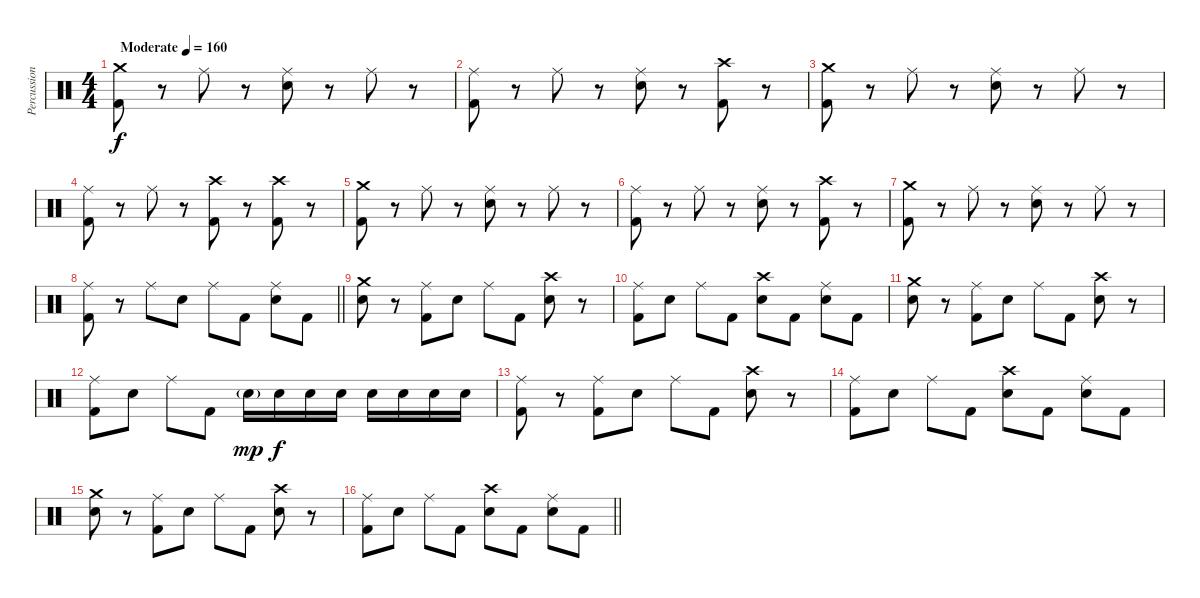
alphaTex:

\track ("Percussion" "Percussion") {instrument percussion}
\staff {score}
\articulation defaults
\ts (4 4)
\tempo (160 "Moderate")
\clef neutral
\ks c
("Crash medium (hit)" "Kick (hit) 2").8{dy f} r.8 "Ride (middle)".8 r.8 ("Ride (middle)" "Electric Snare (hit)").8 r.8 "Ride (middle)".8 r.8 |
("Ride (middle)" "Kick (hit) 2").8 r.8 "Ride (middle)".8 r.8 ("Ride (middle)" "Electric Snare (hit)").8 r.8 ("Crash high (hit)" "Kick (hit) 2").8 r.8 |
("Crash medium (hit)" "Kick (hit) 2").8 r.8 "Ride (middle)".8 r.8 ("Ride (middle)" "Electric Snare (hit)").8 r.8 "Ride (middle)".8 r.8 |
("Ride (middle)" "Kick (hit) 2").8 r.8 "Ride (middle)".8 r.8 ("Crash high (hit)" "Kick (hit) 2").8 r.8 ("Crash high (hit)" "Kick (hit) 2").8 r.8 |
("Crash medium (hit)" "Kick (hit) 2").8 r.8 "Ride (middle)".8 r.8 ("Ride (middle)" "Electric Snare (hit)").8 r.8 "Ride (middle)".8 r.8 |
("Ride (middle)" "Kick (hit) 2").8 r.8 "Ride (middle)".8 r.8 ("Ride (middle)" "Electric Snare (hit)").8 r.8 ("Crash high (hit)" "Kick (hit) 2").8 r.8 |
("Crash medium (hit)" "Kick (hit) 2").8 r.8 "Ride (middle)".8 r.8 ("Ride (middle)" "Electric Snare (hit)").8 r.8 "Ride (middle)".8 r.8 |
\barLineRight lightlight
("Ride (middle)" "Kick (hit) 2").8 r.8 "Ride (middle)".8 "Electric Snare (hit)".8 "Ride (middle)".8 "Kick (hit) 2".8 ("Ride (middle)" "Electric Snare (hit)").8 "Kick (hit) 2".8 |
\section ("" "")
("Crash medium (hit)" "Electric Snare (hit)").8 r.8 ("Ride (middle)" "Kick (hit) 2").8 "Electric Snare (hit)".8 "Ride (middle)".8 "Kick (hit) 2".8 ("Crash high (hit)" "Electric Snare (hit)").8 r.8 |
("Ride (middle)" "Kick (hit) 2").8 "Electric Snare (hit)".8 "Ride (middle)".8 "Kick (hit) 2".8 ("Crash high (hit)" "Electric Snare (hit)").8 "Kick (hit) 2".8 ("Ride (middle)" "Electric Snare (hit)").8 "Kick (hit) 2".8 |
("Crash medium (hit)" "Electric Snare (hit)").8 r.8 ("Ride (middle)" "Kick (hit) 2").8 "Electric Snare (hit)".8 "Ride (middle)".8 "Kick (hit) 2".8 ("Crash high (hit)" "Electric Snare (hit)").8 r.8 |
("Ride (middle)" "Kick (hit) 2").8 "Electric Snare (hit)".8 "Ride (middle)".8 "Kick (hit) 2".8 "Electric Snare (hit)"{g}.16{dy mp} "Electric Snare (hit)".16{dy f} "Electric Snare (hit)".16 "Electric Snare (hit)".16 "Electric Snare (hit)".16 "Electric Snare (hit)".16 "Electric Snare (hit)".16 "Electric Snare (hit)".16 |
("Ride (middle)" "Kick (hit) 2").8 r.8 ("Ride (middle)" "Kick (hit) 2").8 "Electric Snare (hit)".8 "Ride (middle)".8 "Kick (hit) 2".8 ("Crash high (hit)" "Electric Snare (hit)").8 r.8 |
("Ride (middle)" "Kick (hit) 2").8 "Electric Snare (hit)".8 "Ride (middle)".8 "Kick (hit) 2".8 ("Crash high (hit)" "Electric Snare (hit)").8 "Kick (hit) 2".8 ("Ride (middle)" "Electric Snare (hit)").8 "Kick (hit) 2".8 |
("Crash medium (hit)" "Electric Snare (hit)").8 r.8 ("Ride (middle)" "Kick (hit) 2").8 "Electric Snare (hit)".8 "Ride (middle)".8 "Kick (hit) 2".8 ("Crash high (hit)" "Electric Snare (hit)").8 r.8 |
\barLineRight lightlight
("Ride (middle)" "Kick (hit) 2").8 "Electric Snare (hit)".8 "Ride (middle)".8 "Kick (hit) 2".8 ("Crash high (hit)" "Electric Snare (hit)").8 "Kick (hit) 2".8 ("Ride (middle)" "Electric Snare (hit)").8 "Kick (hit) 2".8
